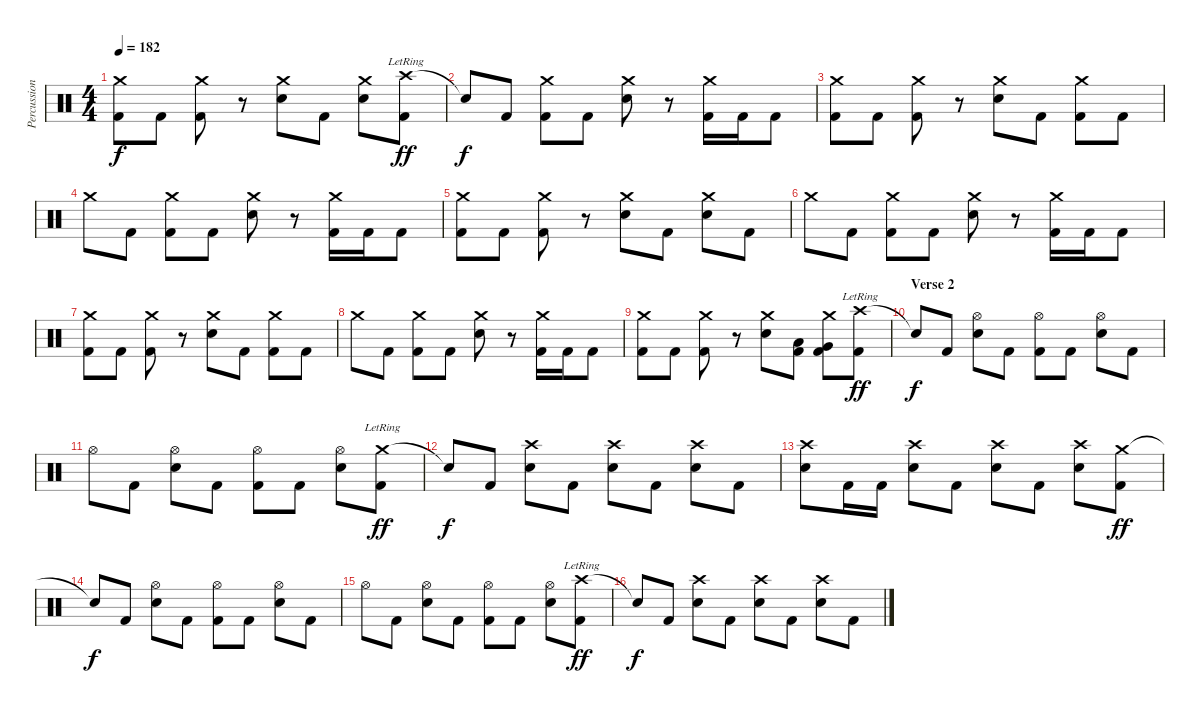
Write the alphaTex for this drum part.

\track ("Percussions" "Percussion") {instrument percussion}
\staff {score}
\articulation defaults
\ts (4 4)
\tempo 182
\clef neutral
\ks c
("Crash medium (hit)" "Kick (hit) 2").8{dy f} "Kick (hit) 2".8 ("Crash medium (hit)" "Kick (hit) 2").8 r.8 ("Crash medium (hit)" "Electric Snare (hit)").8 "Kick (hit) 2".8 ("Crash medium (hit)" "Electric Snare (hit)").8 ("Crash high (hit)"{lr} "Kick (hit) 2").8{dy ff} |
"Snare (hit)"{t}.8{dy f} "Kick (hit) 2".8 ("Crash medium (hit)" "Kick (hit) 2").8 "Kick (hit) 2".8 ("Crash medium (hit)" "Electric Snare (hit)").8 r.8 ("Crash medium (hit)" "Kick (hit) 2").16 "Kick (hit) 2".16 "Kick (hit) 2".8 |
("Crash medium (hit)" "Kick (hit) 2").8 "Kick (hit) 2".8 ("Crash medium (hit)" "Kick (hit) 2").8 r.8 ("Crash medium (hit)" "Electric Snare (hit)").8 "Kick (hit) 2".8 ("Crash medium (hit)" "Kick (hit) 2").8 "Kick (hit) 2".8 |
"Crash medium (hit)".8 "Kick (hit) 2".8 ("Crash medium (hit)" "Kick (hit) 2").8 "Kick (hit) 2".8 ("Crash medium (hit)" "Electric Snare (hit)").8 r.8 ("Crash medium (hit)" "Kick (hit) 2").16 "Kick (hit) 2".16 "Kick (hit) 2".8 |
("Crash medium (hit)" "Kick (hit) 2").8 "Kick (hit) 2".8 ("Crash medium (hit)" "Kick (hit) 2").8 r.8 ("Crash medium (hit)" "Electric Snare (hit)").8 "Kick (hit) 2".8 ("Crash medium (hit)" "Electric Snare (hit)").8 "Kick (hit) 2".8 |
"Crash medium (hit)".8 "Kick (hit) 2".8 ("Crash medium (hit)" "Kick (hit) 2").8 "Kick (hit) 2".8 ("Crash medium (hit)" "Electric Snare (hit)").8 r.8 ("Crash medium (hit)" "Kick (hit) 2").16 "Kick (hit) 2".16 "Kick (hit) 2".8 |
("Crash medium (hit)" "Kick (hit) 2").8 "Kick (hit) 2".8 ("Crash medium (hit)" "Kick (hit) 2").8 r.8 ("Crash medium (hit)" "Electric Snare (hit)").8 "Kick (hit) 2".8 ("Crash medium (hit)" "Kick (hit) 2").8 "Kick (hit) 2".8 |
"Crash medium (hit)".8 "Kick (hit) 2".8 ("Crash medium (hit)" "Kick (hit) 2").8 "Kick (hit) 2".8 ("Crash medium (hit)" "Electric Snare (hit)").8 r.8 ("Crash medium (hit)" "Kick (hit) 2").16 "Kick (hit) 2".16 "Kick (hit) 2".8 |
("Crash medium (hit)" "Kick (hit) 2").8 "Kick (hit) 2".8 ("Crash medium (hit)" "Kick (hit) 2").8 r.8 ("Crash medium (hit)" "Electric Snare (hit)").8 ("Low Tom (hit)" "Kick (hit) 2").8 ("Crash medium (hit)" "Very Low Tom (hit)" "Kick (hit) 2").8 ("Crash high (hit)"{lr} "Kick (hit) 2").8{dy ff} |
\section ("" "Verse 2")
"Snare (hit)"{t}.8{dy f} "Kick (hit) 2".8 ("Hi-Hat (open)" "Electric Snare (hit)").8 "Kick (hit) 2".8 ("Hi-Hat (open)" "Kick (hit) 2").8 "Kick (hit) 2".8 ("Hi-Hat (open)" "Electric Snare (hit)").8 "Kick (hit) 2".8 |
"Hi-Hat (open)".8 "Kick (hit) 2".8 ("Hi-Hat (open)" "Electric Snare (hit)").8 "Kick (hit) 2".8 ("Hi-Hat (open)" "Kick (hit) 2").8 "Kick (hit) 2".8 ("Hi-Hat (open)" "Electric Snare (hit)").8 ("Crash medium (hit)"{lr} "Kick (hit) 2").8{dy ff} |
"Snare (hit)"{t}.8{dy f} "Kick (hit) 2".8 ("Crash high (hit)" "Electric Snare (hit)").8 "Kick (hit) 2".8 ("Crash high (hit)" "Electric Snare (hit)").8 "Kick (hit) 2".8 ("Crash high (hit)" "Electric Snare (hit)").8 "Kick (hit) 2".8 |
("Crash high (hit)" "Electric Snare (hit)").8 "Kick (hit) 2".16 "Kick (hit) 2".16 ("Crash high (hit)" "Electric Snare (hit)").8 "Kick (hit) 2".8 ("Crash high (hit)" "Electric Snare (hit)").8 "Kick (hit) 2".8 ("Crash high (hit)" "Electric Snare (hit)").8 ("Crash medium (hit)" "Kick (hit) 2").8{dy ff} |
"Snare (hit)"{t}.8{dy f} "Kick (hit) 2".8 ("Hi-Hat (open)" "Electric Snare (hit)").8 "Kick (hit) 2".8 ("Hi-Hat (open)" "Kick (hit) 2").8 "Kick (hit) 2".8 ("Hi-Hat (open)" "Electric Snare (hit)").8 "Kick (hit) 2".8 |
"Hi-Hat (open)".8 "Kick (hit) 2".8 ("Hi-Hat (open)" "Electric Snare (hit)").8 "Kick (hit) 2".8 ("Hi-Hat (open)" "Kick (hit) 2").8 "Kick (hit) 2".8 ("Hi-Hat (open)" "Electric Snare (hit)").8 ("Crash high (hit)"{lr} "Kick (hit) 2").8{dy ff} |
"Snare (hit)"{t}.8{dy f} "Kick (hit) 2".8 ("Crash high (hit)" "Electric Snare (hit)").8 "Kick (hit) 2".8 ("Crash high (hit)" "Electric Snare (hit)").8 "Kick (hit) 2".8 ("Crash high (hit)" "Electric Snare (hit)").8 "Kick (hit) 2".8
